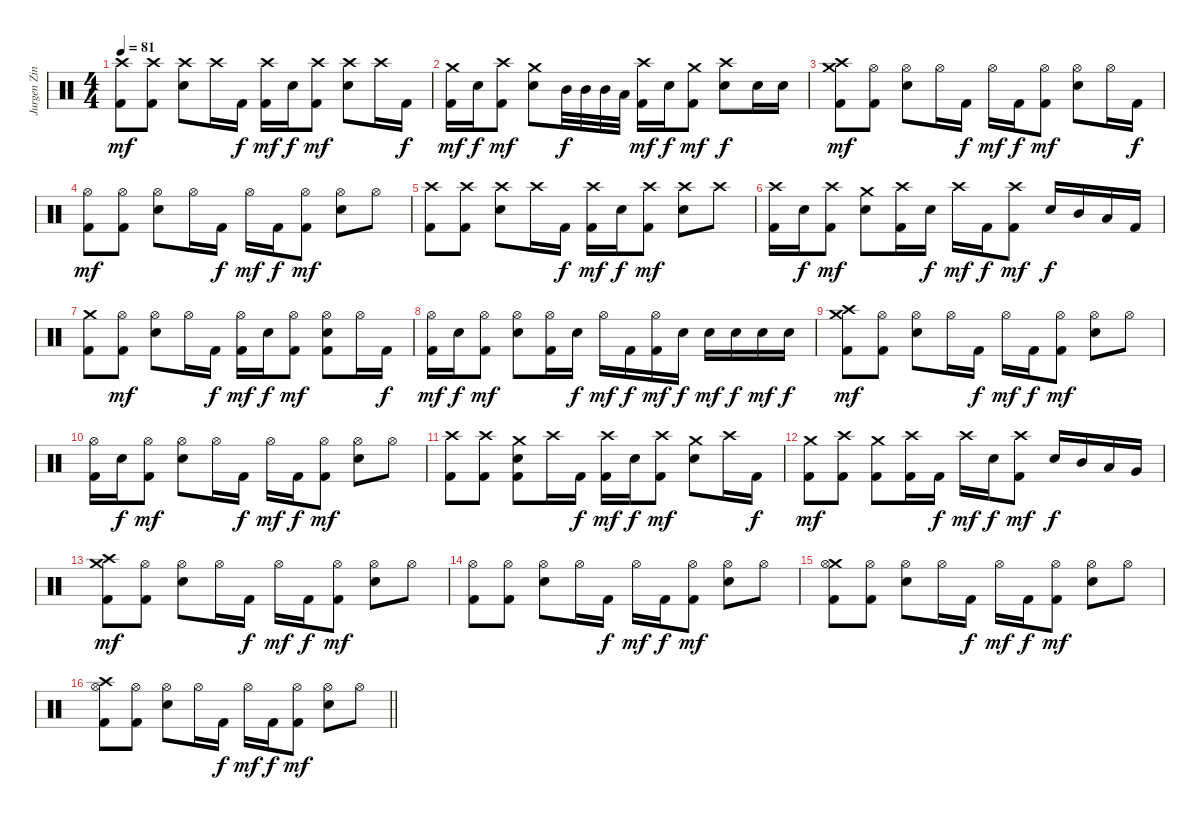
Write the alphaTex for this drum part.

\track ("Jurgen Zing" "Jurgen Zin") {instrument percussion}
\staff {score}
\articulation defaults
\ts (4 4)
\tempo 81
\clef neutral
\ks c
("Crash high (hit)" "Kick (hit) 2").8{dy mf} ("Crash high (hit)" "Kick (hit) 2").8 ("Crash high (hit)" "Electric Snare (hit)").8 "Crash high (hit)".16 "Kick (hit) 2".16{dy f} ("Crash high (hit)" "Kick (hit) 2").16{dy mf} "Electric Snare (hit)".16{dy f} ("Crash high (hit)" "Kick (hit) 2").8{dy mf} ("Crash high (hit)" "Electric Snare (hit)").8 "Crash high (hit)".16 "Kick (hit) 2".16{dy f} |
("Crash medium (hit)" "Kick (hit) 2").16{dy mf} "Electric Snare (hit)".16{dy f} ("Crash high (hit)" "Kick (hit) 2").8{dy mf} ("Crash medium (hit)" "Electric Snare (hit)").8 "Mid Tom (hit)".32{dy f} "Mid Tom (hit)".32 "Mid Tom (hit)".32 "Low Tom (hit)".32 ("Crash high (hit)" "Kick (hit) 2").16{dy mf} "Electric Snare (hit)".16{dy f} ("Crash medium (hit)" "Kick (hit) 2").8{dy mf} ("Crash high (hit)" "Electric Snare (hit)").8{dy f} "Electric Snare (hit)".16 "Electric Snare (hit)".16 |
("Crash medium (hit)" "Crash high (hit)" "Kick (hit) 2").8{dy mf} ("Hi-Hat (open)" "Kick (hit) 2").8 ("Hi-Hat (open)" "Electric Snare (hit)").8 "Hi-Hat (open)".16 "Kick (hit) 2".16{dy f} "Hi-Hat (open)".16{dy mf} "Kick (hit) 2".16{dy f} ("Hi-Hat (open)" "Kick (hit) 2").8{dy mf} ("Hi-Hat (open)" "Electric Snare (hit)").8 "Hi-Hat (open)".16 "Kick (hit) 2".16{dy f} |
("Hi-Hat (open)" "Kick (hit) 2").8{dy mf} ("Hi-Hat (open)" "Kick (hit) 2").8 ("Hi-Hat (open)" "Electric Snare (hit)").8 "Hi-Hat (open)".16 "Kick (hit) 2".16{dy f} "Hi-Hat (open)".16{dy mf} "Kick (hit) 2".16{dy f} ("Hi-Hat (open)" "Kick (hit) 2").8{dy mf} ("Hi-Hat (open)" "Electric Snare (hit)").8 "Hi-Hat (open)".8 |
("Crash high (hit)" "Kick (hit) 2").8 ("Crash high (hit)" "Kick (hit) 2").8 ("Crash high (hit)" "Electric Snare (hit)").8 "Crash high (hit)".16 "Kick (hit) 2".16{dy f} ("Crash high (hit)" "Kick (hit) 2").16{dy mf} "Electric Snare (hit)".16{dy f} ("Crash high (hit)" "Kick (hit) 2").8{dy mf} ("Crash high (hit)" "Electric Snare (hit)").8 "Crash high (hit)".8 |
("Crash high (hit)" "Kick (hit) 2").16 "Electric Snare (hit)".16{dy f} ("Crash high (hit)" "Kick (hit) 2").8{dy mf} ("Crash medium (hit)" "Electric Snare (hit)").8 ("Crash high (hit)" "Kick (hit) 2").16 "Electric Snare (hit)".16{dy f} "Crash high (hit)".16{dy mf} "Kick (hit) 2".16{dy f} ("Crash high (hit)" "Kick (hit) 2").8{dy mf} "Electric Snare (hit)".16{dy f} "Mid Tom (hit)".16 "Low Tom (hit)".16 "Kick (hit) 2".16 |
("Crash medium (hit)" "Kick (hit) 2").8 ("Hi-Hat (open)" "Kick (hit) 2").8{dy mf} ("Hi-Hat (open)" "Electric Snare (hit)").8 "Hi-Hat (open)".16 "Kick (hit) 2".16{dy f} ("Hi-Hat (open)" "Kick (hit) 2").16{dy mf} "Electric Snare (hit)".16{dy f} ("Hi-Hat (open)" "Kick (hit) 2").8{dy mf} ("Hi-Hat (open)" "Electric Snare (hit)" "Kick (hit) 2").8 "Hi-Hat (open)".16 "Kick (hit) 2".16{dy f} |
("Hi-Hat (open)" "Kick (hit) 2").16{dy mf} "Electric Snare (hit)".16{dy f} ("Hi-Hat (open)" "Kick (hit) 2").8{dy mf} ("Hi-Hat (open)" "Electric Snare (hit)").8 ("Hi-Hat (open)" "Kick (hit) 2").16 "Electric Snare (hit)".16{dy f} "Hi-Hat (open)".16{dy mf} "Kick (hit) 2".16{dy f} ("Hi-Hat (open)" "Kick (hit) 2").16{dy mf} "Electric Snare (hit)".16{dy f} "Electric Snare (hit)".16{dy mf} "Electric Snare (hit)".16{dy f} "Electric Snare (hit)".16{dy mf} "Electric Snare (hit)".16{dy f} |
("Crash medium (hit)" "Crash high (hit)" "Kick (hit) 2").8{dy mf} ("Hi-Hat (open)" "Kick (hit) 2").8 ("Hi-Hat (open)" "Electric Snare (hit)").8 "Hi-Hat (open)".16 "Kick (hit) 2".16{dy f} "Hi-Hat (open)".16{dy mf} "Kick (hit) 2".16{dy f} ("Hi-Hat (open)" "Kick (hit) 2").8{dy mf} ("Hi-Hat (open)" "Electric Snare (hit)").8 "Hi-Hat (open)".8 |
("Hi-Hat (open)" "Kick (hit) 2").16 "Electric Snare (hit)".16{dy f} ("Hi-Hat (open)" "Kick (hit) 2").8{dy mf} ("Hi-Hat (open)" "Electric Snare (hit)").8 "Hi-Hat (open)".16 "Kick (hit) 2".16{dy f} "Hi-Hat (open)".16{dy mf} "Kick (hit) 2".16{dy f} ("Hi-Hat (open)" "Kick (hit) 2").8{dy mf} ("Hi-Hat (open)" "Electric Snare (hit)").8 "Hi-Hat (open)".8 |
("Crash high (hit)" "Kick (hit) 2").8 ("Crash high (hit)" "Kick (hit) 2").8 ("Crash medium (hit)" "Electric Snare (hit)" "Kick (hit) 2").8 "Crash high (hit)".16 "Kick (hit) 2".16{dy f} ("Crash high (hit)" "Kick (hit) 2").16{dy mf} "Electric Snare (hit)".16{dy f} ("Crash high (hit)" "Kick (hit) 2").8{dy mf} ("Crash medium (hit)" "Electric Snare (hit)").8 "Crash high (hit)".16 "Kick (hit) 2".16{dy f} |
("Crash medium (hit)" "Kick (hit) 2").8{dy mf} ("Crash high (hit)" "Kick (hit) 2").8 ("Crash medium (hit)" "Kick (hit) 2").8 ("Crash high (hit)" "Kick (hit) 2").16 "Kick (hit) 2".16{dy f} "Crash high (hit)".16{dy mf} "Electric Snare (hit)".16{dy f} ("Crash high (hit)" "Kick (hit) 2").8{dy mf} "Electric Snare (hit)".16{dy f} "Mid Tom (hit)".16 "Low Tom (hit)".16 "Very Low Tom (hit)".16 |
("Crash medium (hit)" "Crash high (hit)" "Kick (hit) 2").8{dy mf} ("Hi-Hat (open)" "Kick (hit) 2").8 ("Hi-Hat (open)" "Electric Snare (hit)").8 "Hi-Hat (open)".16 "Kick (hit) 2".16{dy f} "Hi-Hat (open)".16{dy mf} "Kick (hit) 2".16{dy f} ("Hi-Hat (open)" "Kick (hit) 2").8{dy mf} ("Hi-Hat (open)" "Electric Snare (hit)").8 "Hi-Hat (open)".8 |
("Hi-Hat (open)" "Kick (hit) 2").8 ("Hi-Hat (open)" "Kick (hit) 2").8 ("Hi-Hat (open)" "Electric Snare (hit)").8 "Hi-Hat (open)".16 "Kick (hit) 2".16{dy f} "Hi-Hat (open)".16{dy mf} "Kick (hit) 2".16{dy f} ("Hi-Hat (open)" "Kick (hit) 2").8{dy mf} ("Hi-Hat (open)" "Electric Snare (hit)").8 "Hi-Hat (open)".8 |
("Crash medium (hit)" "Hi-Hat (open)" "Kick (hit) 2").8 ("Hi-Hat (open)" "Kick (hit) 2").8 ("Hi-Hat (open)" "Electric Snare (hit)").8 "Hi-Hat (open)".16 "Kick (hit) 2".16{dy f} "Hi-Hat (open)".16{dy mf} "Kick (hit) 2".16{dy f} ("Hi-Hat (open)" "Kick (hit) 2").8{dy mf} ("Hi-Hat (open)" "Electric Snare (hit)").8 "Hi-Hat (open)".8 |
\barLineRight lightlight
("Crash high (hit)" "Hi-Hat (open)" "Kick (hit) 2").8 ("Hi-Hat (open)" "Kick (hit) 2").8 ("Hi-Hat (open)" "Electric Snare (hit)").8 "Hi-Hat (open)".16 "Kick (hit) 2".16{dy f} "Hi-Hat (open)".16{dy mf} "Kick (hit) 2".16{dy f} ("Hi-Hat (open)" "Kick (hit) 2").8{dy mf} ("Hi-Hat (open)" "Electric Snare (hit)").8 "Hi-Hat (open)".8
